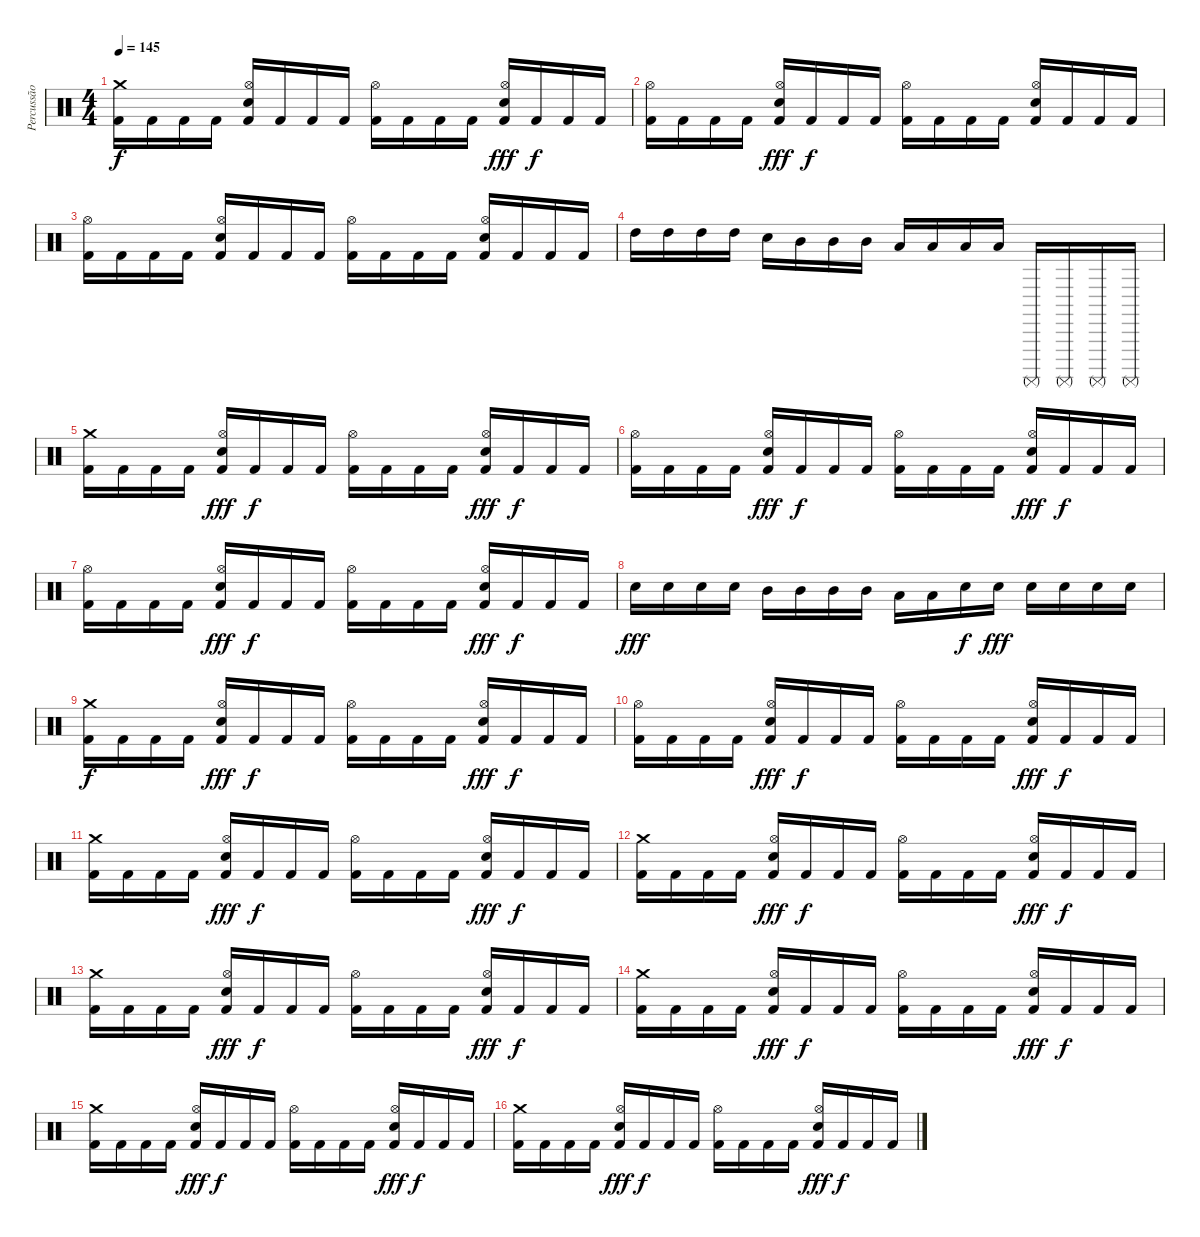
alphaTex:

\track ("Percussão" "Percussão") {instrument percussion}
\staff {score}
\articulation defaults
\ts (4 4)
\tempo 145
\clef neutral
\ks c
("Crash medium (hit)" "Kick (hit) 2").16{dy f} "Kick (hit) 2".16 "Kick (hit) 2".16 "Kick (hit) 2".16 ("Hi-Hat (open)" "Snare (hit) 2" "Kick (hit) 2").16 "Kick (hit) 2".16 "Kick (hit) 2".16 "Kick (hit) 2".16 ("Hi-Hat (open)" "Kick (hit) 2").16 "Kick (hit) 2".16 "Kick (hit) 2".16 "Kick (hit) 2".16 ("Hi-Hat (open)" "Snare (hit) 2" "Kick (hit) 2").16{dy fff} "Kick (hit) 2".16{dy f} "Kick (hit) 2".16 "Kick (hit) 2".16 |
("Hi-Hat (open)" "Kick (hit) 2").16 "Kick (hit) 2".16 "Kick (hit) 2".16 "Kick (hit) 2".16 ("Hi-Hat (open)" "Snare (hit) 2" "Kick (hit) 2").16{dy fff} "Kick (hit) 2".16{dy f} "Kick (hit) 2".16 "Kick (hit) 2".16 ("Hi-Hat (open)" "Kick (hit) 2").16 "Kick (hit) 2".16 "Kick (hit) 2".16 "Kick (hit) 2".16 ("Hi-Hat (open)" "Snare (hit) 2" "Kick (hit) 2").16 "Kick (hit) 2".16 "Kick (hit) 2".16 "Kick (hit) 2".16 |
("Hi-Hat (open)" "Kick (hit) 2").16 "Kick (hit) 2".16 "Kick (hit) 2".16 "Kick (hit) 2".16 ("Hi-Hat (open)" "Snare (hit) 2" "Kick (hit) 2").16 "Kick (hit) 2".16 "Kick (hit) 2".16 "Kick (hit) 2".16 ("Hi-Hat (open)" "Kick (hit) 2").16 "Kick (hit) 2".16 "Kick (hit) 2".16 "Kick (hit) 2".16 ("Hi-Hat (open)" "Snare (hit) 2" "Kick (hit) 2").16 "Kick (hit) 2".16 "Kick (hit) 2".16 "Kick (hit) 2".16 |
"High Tom (hit)".16 "High Tom (hit)".16 "High Tom (hit)".16 "High Tom (hit)".16 "Snare (hit) 2".16 "Mid Tom (hit)".16 "Mid Tom (hit)".16 "Mid Tom (hit)".16 "Low Tom (hit)".16 "Low Tom (hit)".16 "Low Tom (hit)".16 "Low Tom (hit)".16 "Surdo (mute)".16 "Surdo (mute)".16 "Surdo (mute)".16 "Surdo (mute)".16 |
("Crash medium (hit)" "Kick (hit) 2").16 "Kick (hit) 2".16 "Kick (hit) 2".16 "Kick (hit) 2".16 ("Hi-Hat (open)" "Snare (hit) 2" "Kick (hit) 2").16{dy fff} "Kick (hit) 2".16{dy f} "Kick (hit) 2".16 "Kick (hit) 2".16 ("Hi-Hat (open)" "Kick (hit) 2").16 "Kick (hit) 2".16 "Kick (hit) 2".16 "Kick (hit) 2".16 ("Hi-Hat (open)" "Snare (hit) 2" "Kick (hit) 2").16{dy fff} "Kick (hit) 2".16{dy f} "Kick (hit) 2".16 "Kick (hit) 2".16 |
("Hi-Hat (open)" "Kick (hit) 2").16 "Kick (hit) 2".16 "Kick (hit) 2".16 "Kick (hit) 2".16 ("Hi-Hat (open)" "Snare (hit) 2" "Kick (hit) 2").16{dy fff} "Kick (hit) 2".16{dy f} "Kick (hit) 2".16 "Kick (hit) 2".16 ("Hi-Hat (open)" "Kick (hit) 2").16 "Kick (hit) 2".16 "Kick (hit) 2".16 "Kick (hit) 2".16 ("Hi-Hat (open)" "Snare (hit) 2" "Kick (hit) 2").16{dy fff} "Kick (hit) 2".16{dy f} "Kick (hit) 2".16 "Kick (hit) 2".16 |
("Hi-Hat (open)" "Kick (hit) 2").16 "Kick (hit) 2".16 "Kick (hit) 2".16 "Kick (hit) 2".16 ("Hi-Hat (open)" "Snare (hit) 2" "Kick (hit) 2").16{dy fff} "Kick (hit) 2".16{dy f} "Kick (hit) 2".16 "Kick (hit) 2".16 ("Hi-Hat (open)" "Kick (hit) 2").16 "Kick (hit) 2".16 "Kick (hit) 2".16 "Kick (hit) 2".16 ("Hi-Hat (open)" "Snare (hit) 2" "Kick (hit) 2").16{dy fff} "Kick (hit) 2".16{dy f} "Kick (hit) 2".16 "Kick (hit) 2".16 |
"Snare (hit) 2".16{dy fff} "Snare (hit) 2".16 "Snare (hit) 2".16 "Snare (hit) 2".16 "Mid Tom (hit)".16 "Mid Tom (hit)".16 "Mid Tom (hit)".16 "Mid Tom (hit)".16 "Low Tom (hit)".16 "Low Tom (hit)".16 "Snare (hit) 2".16{dy f} "Snare (hit) 2".16{dy fff} "Snare (hit) 2".16 "Snare (hit) 2".16 "Snare (hit) 2".16 "Snare (hit) 2".16 |
("Crash medium (hit)" "Kick (hit) 2").16{dy f} "Kick (hit) 2".16 "Kick (hit) 2".16 "Kick (hit) 2".16 ("Hi-Hat (open)" "Snare (hit) 2" "Kick (hit) 2").16{dy fff} "Kick (hit) 2".16{dy f} "Kick (hit) 2".16 "Kick (hit) 2".16 ("Hi-Hat (open)" "Kick (hit) 2").16 "Kick (hit) 2".16 "Kick (hit) 2".16 "Kick (hit) 2".16 ("Hi-Hat (open)" "Snare (hit) 2" "Kick (hit) 2").16{dy fff} "Kick (hit) 2".16{dy f} "Kick (hit) 2".16 "Kick (hit) 2".16 |
("Hi-Hat (open)" "Kick (hit) 2").16 "Kick (hit) 2".16 "Kick (hit) 2".16 "Kick (hit) 2".16 ("Hi-Hat (open)" "Snare (hit) 2" "Kick (hit) 2").16{dy fff} "Kick (hit) 2".16{dy f} "Kick (hit) 2".16 "Kick (hit) 2".16 ("Hi-Hat (open)" "Kick (hit) 2").16 "Kick (hit) 2".16 "Kick (hit) 2".16 "Kick (hit) 2".16 ("Hi-Hat (open)" "Snare (hit) 2" "Kick (hit) 2").16{dy fff} "Kick (hit) 2".16{dy f} "Kick (hit) 2".16 "Kick (hit) 2".16 |
("Crash medium (hit)" "Kick (hit) 2").16 "Kick (hit) 2".16 "Kick (hit) 2".16 "Kick (hit) 2".16 ("Hi-Hat (open)" "Snare (hit) 2" "Kick (hit) 2").16{dy fff} "Kick (hit) 2".16{dy f} "Kick (hit) 2".16 "Kick (hit) 2".16 ("Hi-Hat (open)" "Kick (hit) 2").16 "Kick (hit) 2".16 "Kick (hit) 2".16 "Kick (hit) 2".16 ("Hi-Hat (open)" "Snare (hit) 2" "Kick (hit) 2").16{dy fff} "Kick (hit) 2".16{dy f} "Kick (hit) 2".16 "Kick (hit) 2".16 |
("Crash medium (hit)" "Kick (hit) 2").16 "Kick (hit) 2".16 "Kick (hit) 2".16 "Kick (hit) 2".16 ("Hi-Hat (open)" "Snare (hit) 2" "Kick (hit) 2").16{dy fff} "Kick (hit) 2".16{dy f} "Kick (hit) 2".16 "Kick (hit) 2".16 ("Hi-Hat (open)" "Kick (hit) 2").16 "Kick (hit) 2".16 "Kick (hit) 2".16 "Kick (hit) 2".16 ("Hi-Hat (open)" "Snare (hit) 2" "Kick (hit) 2").16{dy fff} "Kick (hit) 2".16{dy f} "Kick (hit) 2".16 "Kick (hit) 2".16 |
("Crash medium (hit)" "Kick (hit) 2").16 "Kick (hit) 2".16 "Kick (hit) 2".16 "Kick (hit) 2".16 ("Hi-Hat (open)" "Snare (hit) 2" "Kick (hit) 2").16{dy fff} "Kick (hit) 2".16{dy f} "Kick (hit) 2".16 "Kick (hit) 2".16 ("Hi-Hat (open)" "Kick (hit) 2").16 "Kick (hit) 2".16 "Kick (hit) 2".16 "Kick (hit) 2".16 ("Hi-Hat (open)" "Snare (hit) 2" "Kick (hit) 2").16{dy fff} "Kick (hit) 2".16{dy f} "Kick (hit) 2".16 "Kick (hit) 2".16 |
("Crash medium (hit)" "Kick (hit) 2").16 "Kick (hit) 2".16 "Kick (hit) 2".16 "Kick (hit) 2".16 ("Hi-Hat (open)" "Snare (hit) 2" "Kick (hit) 2").16{dy fff} "Kick (hit) 2".16{dy f} "Kick (hit) 2".16 "Kick (hit) 2".16 ("Hi-Hat (open)" "Kick (hit) 2").16 "Kick (hit) 2".16 "Kick (hit) 2".16 "Kick (hit) 2".16 ("Hi-Hat (open)" "Snare (hit) 2" "Kick (hit) 2").16{dy fff} "Kick (hit) 2".16{dy f} "Kick (hit) 2".16 "Kick (hit) 2".16 |
("Crash medium (hit)" "Kick (hit) 2").16 "Kick (hit) 2".16 "Kick (hit) 2".16 "Kick (hit) 2".16 ("Hi-Hat (open)" "Snare (hit) 2" "Kick (hit) 2").16{dy fff} "Kick (hit) 2".16{dy f} "Kick (hit) 2".16 "Kick (hit) 2".16 ("Hi-Hat (open)" "Kick (hit) 2").16 "Kick (hit) 2".16 "Kick (hit) 2".16 "Kick (hit) 2".16 ("Hi-Hat (open)" "Snare (hit) 2" "Kick (hit) 2").16{dy fff} "Kick (hit) 2".16{dy f} "Kick (hit) 2".16 "Kick (hit) 2".16 |
("Crash medium (hit)" "Kick (hit) 2").16 "Kick (hit) 2".16 "Kick (hit) 2".16 "Kick (hit) 2".16 ("Hi-Hat (open)" "Snare (hit) 2" "Kick (hit) 2").16{dy fff} "Kick (hit) 2".16{dy f} "Kick (hit) 2".16 "Kick (hit) 2".16 ("Hi-Hat (open)" "Kick (hit) 2").16 "Kick (hit) 2".16 "Kick (hit) 2".16 "Kick (hit) 2".16 ("Hi-Hat (open)" "Snare (hit) 2" "Kick (hit) 2").16{dy fff} "Kick (hit) 2".16{dy f} "Kick (hit) 2".16 "Kick (hit) 2".16
